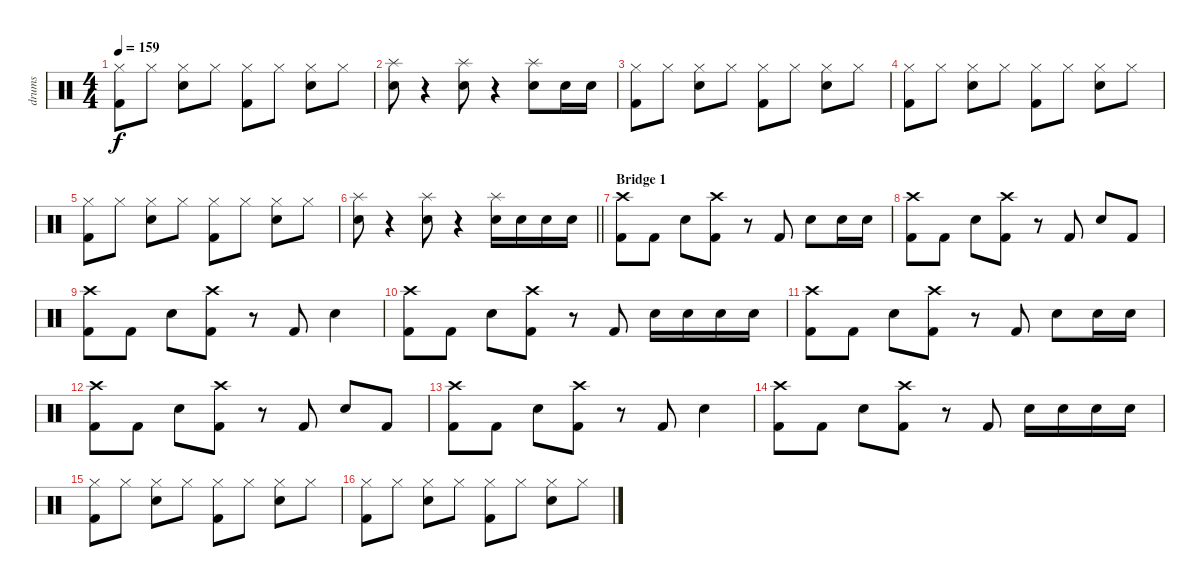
\track ("drums" "drums") {instrument percussion}
\staff {score}
\articulation defaults
\ts (4 4)
\tempo 159
\clef neutral
\ks c
("Hi-Hat (closed)" "Kick (hit) 2").8{dy f} "Hi-Hat (closed)".8 ("Hi-Hat (closed)" "Electric Snare (hit)").8 "Hi-Hat (closed)".8 ("Hi-Hat (closed)" "Kick (hit) 2").8 "Hi-Hat (closed)".8 ("Hi-Hat (closed)" "Electric Snare (hit)").8 "Hi-Hat (closed)".8 |
("Splash (hit)" "Electric Snare (hit)").8 r.4 ("Splash (hit)" "Electric Snare (hit)").8 r.4 ("Splash (hit)" "Electric Snare (hit)").8 "Electric Snare (hit)".16 "Electric Snare (hit)".16 |
("Hi-Hat (closed)" "Kick (hit) 2").8 "Hi-Hat (closed)".8 ("Hi-Hat (closed)" "Electric Snare (hit)").8 "Hi-Hat (closed)".8 ("Hi-Hat (closed)" "Kick (hit) 2").8 "Hi-Hat (closed)".8 ("Hi-Hat (closed)" "Electric Snare (hit)").8 "Hi-Hat (closed)".8 |
("Hi-Hat (closed)" "Kick (hit) 2").8 "Hi-Hat (closed)".8 ("Hi-Hat (closed)" "Electric Snare (hit)").8 "Hi-Hat (closed)".8 ("Hi-Hat (closed)" "Kick (hit) 2").8 "Hi-Hat (closed)".8 ("Hi-Hat (closed)" "Electric Snare (hit)").8 "Hi-Hat (closed)".8 |
("Hi-Hat (closed)" "Kick (hit) 2").8 "Hi-Hat (closed)".8 ("Hi-Hat (closed)" "Electric Snare (hit)").8 "Hi-Hat (closed)".8 ("Hi-Hat (closed)" "Kick (hit) 2").8 "Hi-Hat (closed)".8 ("Hi-Hat (closed)" "Electric Snare (hit)").8 "Hi-Hat (closed)".8 |
\barLineRight lightlight
("Splash (hit)" "Electric Snare (hit)").8 r.4 ("Splash (hit)" "Electric Snare (hit)").8 r.4 ("Splash (hit)" "Electric Snare (hit)").16 "Electric Snare (hit)".16 "Electric Snare (hit)".16 "Electric Snare (hit)".16 |
\section ("" "Bridge 1")
("Crash high (hit)" "Kick (hit) 2").8 "Kick (hit) 2".8 "Electric Snare (hit)".8 ("Crash high (hit)" "Kick (hit) 2").8 r.8 "Kick (hit) 2".8 "Electric Snare (hit)".8 "Electric Snare (hit)".16 "Electric Snare (hit)".16 |
("Crash high (hit)" "Kick (hit) 2").8 "Kick (hit) 2".8 "Electric Snare (hit)".8 ("Crash high (hit)" "Kick (hit) 2").8 r.8 "Kick (hit) 2".8 "Electric Snare (hit)".8 "Kick (hit) 2".8 |
("Crash high (hit)" "Kick (hit) 2").8 "Kick (hit) 2".8 "Electric Snare (hit)".8 ("Crash high (hit)" "Kick (hit) 2").8 r.8 "Kick (hit) 2".8 "Electric Snare (hit)".4 |
("Crash high (hit)" "Kick (hit) 2").8 "Kick (hit) 2".8 "Electric Snare (hit)".8 ("Crash high (hit)" "Kick (hit) 2").8 r.8 "Kick (hit) 2".8 "Electric Snare (hit)".16 "Electric Snare (hit)".16 "Electric Snare (hit)".16 "Electric Snare (hit)".16 |
("Crash high (hit)" "Kick (hit) 2").8 "Kick (hit) 2".8 "Electric Snare (hit)".8 ("Crash high (hit)" "Kick (hit) 2").8 r.8 "Kick (hit) 2".8 "Electric Snare (hit)".8 "Electric Snare (hit)".16 "Electric Snare (hit)".16 |
("Crash high (hit)" "Kick (hit) 2").8 "Kick (hit) 2".8 "Electric Snare (hit)".8 ("Crash high (hit)" "Kick (hit) 2").8 r.8 "Kick (hit) 2".8 "Electric Snare (hit)".8 "Kick (hit) 2".8 |
("Crash high (hit)" "Kick (hit) 2").8 "Kick (hit) 2".8 "Electric Snare (hit)".8 ("Crash high (hit)" "Kick (hit) 2").8 r.8 "Kick (hit) 2".8 "Electric Snare (hit)".4 |
("Crash high (hit)" "Kick (hit) 2").8 "Kick (hit) 2".8 "Electric Snare (hit)".8 ("Crash high (hit)" "Kick (hit) 2").8 r.8 "Kick (hit) 2".8 "Electric Snare (hit)".16 "Electric Snare (hit)".16 "Electric Snare (hit)".16 "Electric Snare (hit)".16 |
("Hi-Hat (closed)" "Kick (hit) 2").8 "Hi-Hat (closed)".8 ("Hi-Hat (closed)" "Electric Snare (hit)").8 "Hi-Hat (closed)".8 ("Hi-Hat (closed)" "Kick (hit) 2").8 "Hi-Hat (closed)".8 ("Hi-Hat (closed)" "Electric Snare (hit)").8 "Hi-Hat (closed)".8 |
("Hi-Hat (closed)" "Kick (hit) 2").8 "Hi-Hat (closed)".8 ("Hi-Hat (closed)" "Electric Snare (hit)").8 "Hi-Hat (closed)".8 ("Hi-Hat (closed)" "Kick (hit) 2").8 "Hi-Hat (closed)".8 ("Hi-Hat (closed)" "Electric Snare (hit)").8 "Hi-Hat (closed)".8
